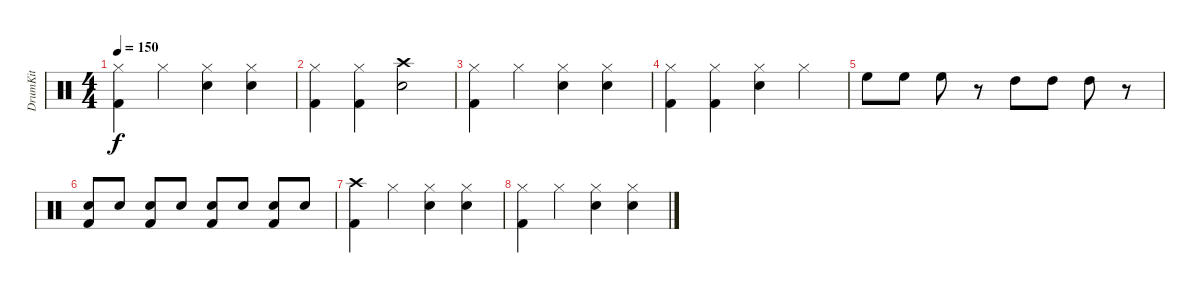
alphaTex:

\track ("DrumKit" "DrumKit") {instrument percussion}
\staff {score}
\articulation defaults
\ts (4 4)
\tempo 150
\clef neutral
\ks c
("Hi-Hat (closed)" "Kick (hit) 2").4{dy f} "Hi-Hat (closed)".4 ("Hi-Hat (closed)" "Snare (hit) 2").4 ("Hi-Hat (closed)" "Snare (hit) 2").4 |
("Hi-Hat (closed)" "Kick (hit) 2").4 ("Hi-Hat (closed)" "Kick (hit) 2").4 ("Crash high (hit)" "Snare (hit) 2").2 |
("Hi-Hat (closed)" "Kick (hit) 2").4 "Hi-Hat (closed)".4 ("Hi-Hat (closed)" "Snare (hit) 2").4 ("Hi-Hat (closed)" "Snare (hit) 2").4 |
("Hi-Hat (closed)" "Kick (hit) 2").4 ("Hi-Hat (closed)" "Kick (hit) 2").4 ("Hi-Hat (closed)" "Snare (hit) 2").4 "Hi-Hat (closed)".4 |
"High Floor Tom (hit)".8 "High Floor Tom (hit)".8 "High Floor Tom (hit)".8 r.8 "High Tom (hit)".8 "High Tom (hit)".8 "High Tom (hit)".8 r.8 |
("Snare (hit) 2" "Kick (hit) 2").8 "Snare (hit) 2".8 ("Snare (hit) 2" "Kick (hit) 2").8 "Snare (hit) 2".8 ("Snare (hit) 2" "Kick (hit) 2").8 "Snare (hit) 2".8 ("Snare (hit) 2" "Kick (hit) 2").8 "Snare (hit) 2".8 |
("Crash high (hit)" "Kick (hit) 2").4 "Hi-Hat (closed)".4 ("Hi-Hat (closed)" "Snare (hit) 2").4 ("Hi-Hat (closed)" "Snare (hit) 2").4 |
("Hi-Hat (closed)" "Kick (hit) 2").4 "Hi-Hat (closed)".4 ("Hi-Hat (closed)" "Snare (hit) 2").4 ("Hi-Hat (closed)" "Snare (hit) 2").4
